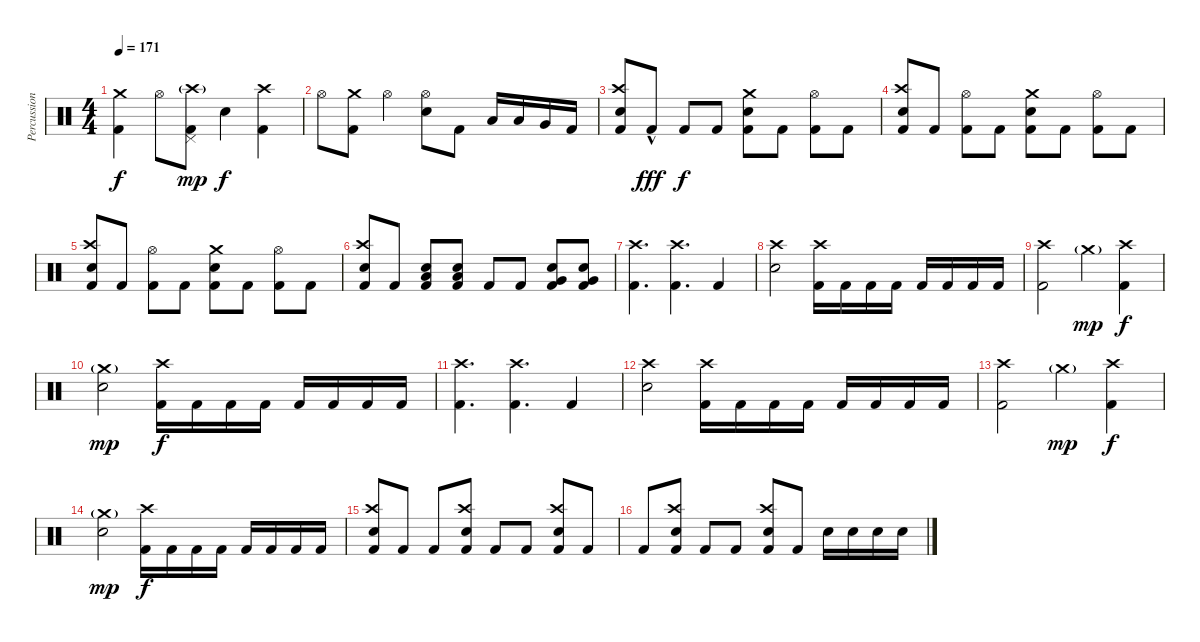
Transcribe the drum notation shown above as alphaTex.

\track ("Percussion" "Percussion") {instrument percussion}
\staff {score}
\articulation defaults
\ts (4 4)
\tempo 171
\clef neutral
\ks c
("Crash medium (hit)" "Kick (hit) 2").4{dy f} "Hi-Hat (open)".8 ("Crash high (hit)"{g} "Kick (hit) 2" "Pedal Hi-Hat (hit)").8{dy mp} "Electric Snare (hit)".4{dy f} ("Crash high (hit)" "Kick (hit) 2").4 |
"Hi-Hat (open)".8 ("Crash medium (hit)" "Kick (hit) 2").8 "Hi-Hat (open)".4 ("Hi-Hat (open)" "Electric Snare (hit)").8 "Kick (hit) 2".8 "Low Tom (hit)".16 "Low Tom (hit)".16 "Very Low Tom (hit)".16 "Kick (hit) 2".16 |
("Crash high (hit)" "Electric Snare (hit)" "Kick (hit) 2").8 "Kick (hit) 2"{hac}.8{dy fff} "Kick (hit) 2".8{dy f} "Kick (hit) 2".8 ("Crash medium (hit)" "Electric Snare (hit)" "Kick (hit) 2").8 "Kick (hit) 2".8 ("Hi-Hat (open)" "Kick (hit) 2").8 "Kick (hit) 2".8 |
("Crash high (hit)" "Electric Snare (hit)" "Kick (hit) 2").8 "Kick (hit) 2".8 ("Hi-Hat (open)" "Kick (hit) 2").8 "Kick (hit) 2".8 ("Crash medium (hit)" "Electric Snare (hit)" "Kick (hit) 2").8 "Kick (hit) 2".8 ("Hi-Hat (open)" "Kick (hit) 2").8 "Kick (hit) 2".8 |
("Crash high (hit)" "Electric Snare (hit)" "Kick (hit) 2").8 "Kick (hit) 2".8 ("Hi-Hat (open)" "Kick (hit) 2").8 "Kick (hit) 2".8 ("Crash medium (hit)" "Electric Snare (hit)" "Kick (hit) 2").8 "Kick (hit) 2".8 ("Hi-Hat (open)" "Kick (hit) 2").8 "Kick (hit) 2".8 |
("Crash high (hit)" "Electric Snare (hit)" "Kick (hit) 2").8 "Kick (hit) 2".8 ("Electric Snare (hit)" "Low Tom (hit)" "Kick (hit) 2").8 ("Electric Snare (hit)" "Low Tom (hit)" "Kick (hit) 2").8 "Kick (hit) 2".8 "Kick (hit) 2".8 ("Electric Snare (hit)" "Very Low Tom (hit)" "Kick (hit) 2").8 ("Electric Snare (hit)" "Very Low Tom (hit)" "Kick (hit) 2").8 |
("Crash high (hit)" "Kick (hit) 2").4{d} ("Crash high (hit)" "Kick (hit) 2").4{d} "Kick (hit) 2".4 |
("Crash high (hit)" "Electric Snare (hit)").2 ("Crash high (hit)" "Kick (hit) 2").16 "Kick (hit) 2".16 "Kick (hit) 2".16 "Kick (hit) 2".16 "Kick (hit) 2".16 "Kick (hit) 2".16 "Kick (hit) 2".16 "Kick (hit) 2".16 |
("Crash high (hit)" "Kick (hit) 2").2 "Crash medium (hit)"{g}.4{dy mp} ("Crash high (hit)" "Kick (hit) 2").4{dy f} |
("Crash medium (hit)"{g} "Electric Snare (hit)").2{dy mp} ("Crash high (hit)" "Kick (hit) 2").16{dy f} "Kick (hit) 2".16 "Kick (hit) 2".16 "Kick (hit) 2".16 "Kick (hit) 2".16 "Kick (hit) 2".16 "Kick (hit) 2".16 "Kick (hit) 2".16 |
("Crash high (hit)" "Kick (hit) 2").4{d} ("Crash high (hit)" "Kick (hit) 2").4{d} "Kick (hit) 2".4 |
("Crash high (hit)" "Electric Snare (hit)").2 ("Crash high (hit)" "Kick (hit) 2").16 "Kick (hit) 2".16 "Kick (hit) 2".16 "Kick (hit) 2".16 "Kick (hit) 2".16 "Kick (hit) 2".16 "Kick (hit) 2".16 "Kick (hit) 2".16 |
("Crash high (hit)" "Kick (hit) 2").2 "Crash medium (hit)"{g}.4{dy mp} ("Crash high (hit)" "Kick (hit) 2").4{dy f} |
("Crash medium (hit)"{g} "Electric Snare (hit)").2{dy mp} ("Crash high (hit)" "Kick (hit) 2").16{dy f} "Kick (hit) 2".16 "Kick (hit) 2".16 "Kick (hit) 2".16 "Kick (hit) 2".16 "Kick (hit) 2".16 "Kick (hit) 2".16 "Kick (hit) 2".16 |
("Crash high (hit)" "Electric Snare (hit)" "Kick (hit) 2").8 "Kick (hit) 2".8 "Kick (hit) 2".8 ("Crash high (hit)" "Electric Snare (hit)" "Kick (hit) 2").8 "Kick (hit) 2".8 "Kick (hit) 2".8 ("Crash high (hit)" "Electric Snare (hit)" "Kick (hit) 2").8 "Kick (hit) 2".8 |
"Kick (hit) 2".8 ("Crash high (hit)" "Electric Snare (hit)" "Kick (hit) 2").8 "Kick (hit) 2".8 "Kick (hit) 2".8 ("Crash high (hit)" "Electric Snare (hit)" "Kick (hit) 2").8 "Kick (hit) 2".8 "Electric Snare (hit)".16 "Electric Snare (hit)".16 "Electric Snare (hit)".16 "Electric Snare (hit)".16
